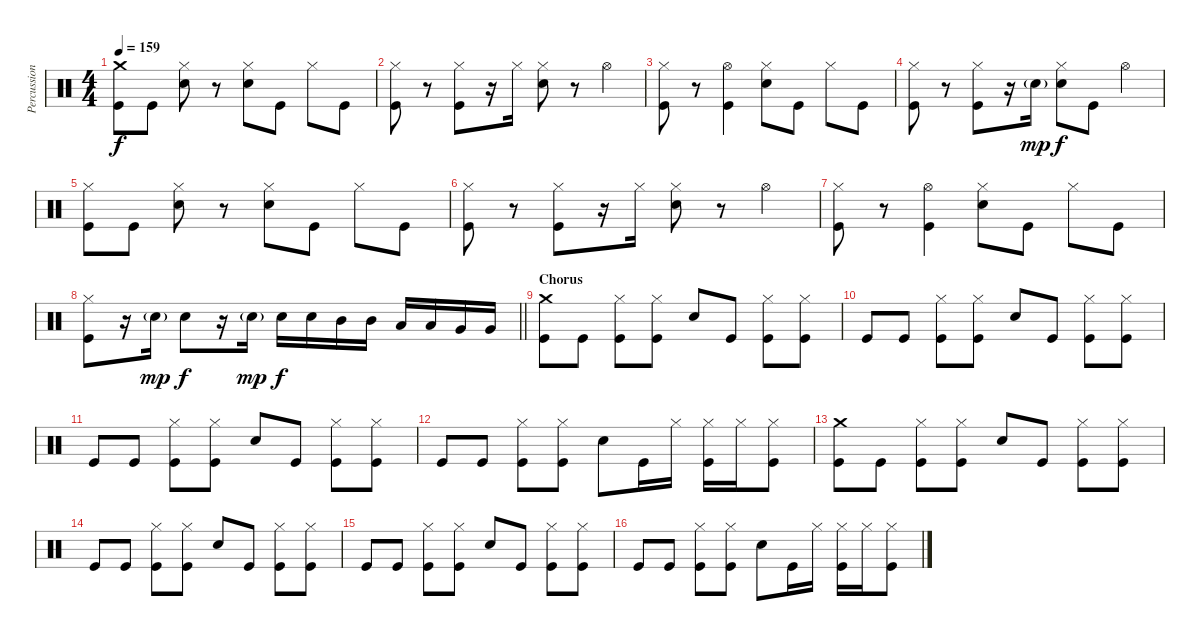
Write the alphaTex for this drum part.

\track ("Percussion" "Percussion") {instrument percussion}
\staff {score}
\articulation defaults
\ts (4 4)
\tempo 159
\clef neutral
\ks c
("Crash medium (hit)" "Kick (hit)").8{dy f} "Kick (hit)".8 ("Hi-Hat (closed)" "Snare (hit) 2").8 r.8 ("Hi-Hat (closed)" "Snare (hit) 2").8 "Kick (hit)".8 "Hi-Hat (closed)".8 "Kick (hit)".8 |
("Hi-Hat (closed)" "Kick (hit)").8 r.8 ("Hi-Hat (closed)" "Kick (hit)").8 r.16 "Hi-Hat (closed)".16 ("Hi-Hat (closed)" "Snare (hit) 2").8 r.8 "Hi-Hat (open)".4 |
("Hi-Hat (closed)" "Kick (hit)").8 r.8 ("Hi-Hat (open)" "Kick (hit)").4 ("Hi-Hat (closed)" "Snare (hit) 2").8 "Kick (hit)".8 "Hi-Hat (closed)".8 "Kick (hit)".8 |
("Hi-Hat (closed)" "Kick (hit)").8 r.8 ("Hi-Hat (closed)" "Kick (hit)").8 r.16 "Snare (hit) 2"{g}.16{dy mp} ("Hi-Hat (closed)" "Snare (hit) 2").8{dy f} "Kick (hit)".8 "Hi-Hat (open)".4 |
("Hi-Hat (closed)" "Kick (hit)").8 "Kick (hit)".8 ("Hi-Hat (closed)" "Snare (hit) 2").8 r.8 ("Hi-Hat (closed)" "Snare (hit) 2").8 "Kick (hit)".8 "Hi-Hat (closed)".8 "Kick (hit)".8 |
("Hi-Hat (closed)" "Kick (hit)").8 r.8 ("Hi-Hat (closed)" "Kick (hit)").8 r.16 "Hi-Hat (closed)".16 ("Hi-Hat (closed)" "Snare (hit) 2").8 r.8 "Hi-Hat (open)".4 |
("Hi-Hat (closed)" "Kick (hit)").8 r.8 ("Hi-Hat (open)" "Kick (hit)").4 ("Hi-Hat (closed)" "Snare (hit) 2").8 "Kick (hit)".8 "Hi-Hat (closed)".8 "Kick (hit)".8 |
\barLineRight lightlight
("Hi-Hat (closed)" "Kick (hit)").8 r.16 "Snare (hit) 2"{g}.16{dy mp} "Snare (hit) 2".8{dy f} r.16 "Snare (hit) 2"{g}.16{dy mp} "Snare (hit) 2".16{dy f} "Snare (hit) 2".16 "Mid Tom (hit)".16 "Mid Tom (hit)".16 "Low Tom (hit)".16 "Low Tom (hit)".16 "Very Low Tom (hit)".16 "Very Low Tom (hit)".16 |
\section ("" "Chorus")
("Crash medium (hit)" "Kick (hit)").8 "Kick (hit)".8 ("Hi-Hat (closed)" "Kick (hit)").8 ("Hi-Hat (closed)" "Kick (hit)").8 "Snare (hit) 2".8 "Kick (hit)".8 ("Hi-Hat (closed)" "Kick (hit)").8 ("Hi-Hat (closed)" "Kick (hit)").8 |
"Kick (hit)".8 "Kick (hit)".8 ("Hi-Hat (closed)" "Kick (hit)").8 ("Hi-Hat (closed)" "Kick (hit)").8 "Snare (hit) 2".8 "Kick (hit)".8 ("Hi-Hat (closed)" "Kick (hit)").8 ("Hi-Hat (closed)" "Kick (hit)").8 |
"Kick (hit)".8 "Kick (hit)".8 ("Hi-Hat (closed)" "Kick (hit)").8 ("Hi-Hat (closed)" "Kick (hit)").8 "Snare (hit) 2".8 "Kick (hit)".8 ("Hi-Hat (closed)" "Kick (hit)").8 ("Hi-Hat (closed)" "Kick (hit)").8 |
"Kick (hit)".8 "Kick (hit)".8 ("Hi-Hat (closed)" "Kick (hit)").8 ("Hi-Hat (closed)" "Kick (hit)").8 "Snare (hit) 2".8 "Kick (hit)".16 "Hi-Hat (closed)".16 ("Hi-Hat (closed)" "Kick (hit)").16 "Hi-Hat (closed)".16 ("Hi-Hat (closed)" "Kick (hit)").8 |
("Crash medium (hit)" "Kick (hit)").8 "Kick (hit)".8 ("Hi-Hat (closed)" "Kick (hit)").8 ("Hi-Hat (closed)" "Kick (hit)").8 "Snare (hit) 2".8 "Kick (hit)".8 ("Hi-Hat (closed)" "Kick (hit)").8 ("Hi-Hat (closed)" "Kick (hit)").8 |
"Kick (hit)".8 "Kick (hit)".8 ("Hi-Hat (closed)" "Kick (hit)").8 ("Hi-Hat (closed)" "Kick (hit)").8 "Snare (hit) 2".8 "Kick (hit)".8 ("Hi-Hat (closed)" "Kick (hit)").8 ("Hi-Hat (closed)" "Kick (hit)").8 |
"Kick (hit)".8 "Kick (hit)".8 ("Hi-Hat (closed)" "Kick (hit)").8 ("Hi-Hat (closed)" "Kick (hit)").8 "Snare (hit) 2".8 "Kick (hit)".8 ("Hi-Hat (closed)" "Kick (hit)").8 ("Hi-Hat (closed)" "Kick (hit)").8 |
"Kick (hit)".8 "Kick (hit)".8 ("Hi-Hat (closed)" "Kick (hit)").8 ("Hi-Hat (closed)" "Kick (hit)").8 "Snare (hit) 2".8 "Kick (hit)".16 "Hi-Hat (closed)".16 ("Hi-Hat (closed)" "Kick (hit)").16 "Hi-Hat (closed)".16 ("Hi-Hat (closed)" "Kick (hit)").8
